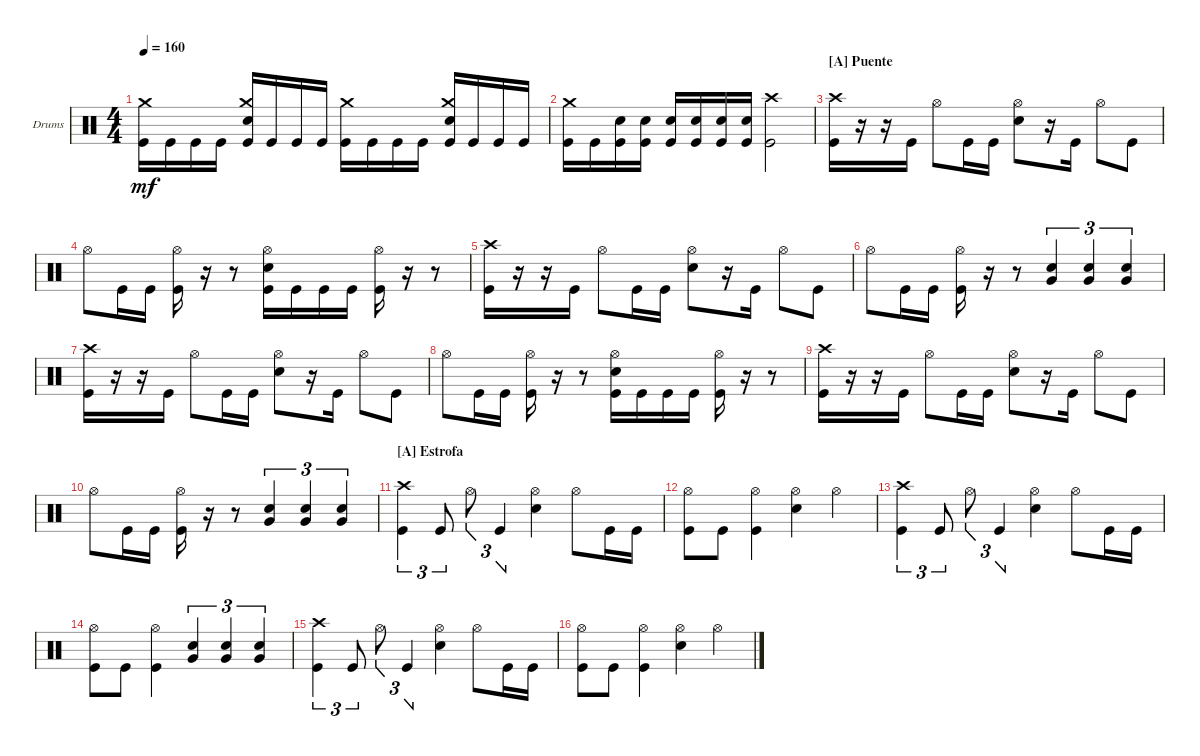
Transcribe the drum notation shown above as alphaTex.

\bracketExtendMode groupsimilarinstruments
\firstSystemTrackNameOrientation horizontal
\otherSystemsTrackNameOrientation horizontal
\track ("Nick Augusto" "Drums") {instrument percussion}
\staff {score}
\articulation defaults
\ts (4 4)
\tempo 160
\clef neutral
\ks c
("Kick (hit)" "Crash medium (hit)").16{dy mf} "Kick (hit)".16 "Kick (hit)".16 "Kick (hit)".16 ("Kick (hit)" "Snare (hit) 2" "Crash medium (hit)").16 "Kick (hit)".16 "Kick (hit)".16 "Kick (hit)".16 ("Kick (hit)" "Crash medium (hit)").16 "Kick (hit)".16 "Kick (hit)".16 "Kick (hit)".16 ("Kick (hit)" "Snare (hit) 2" "Crash medium (hit)").16 "Kick (hit)".16 "Kick (hit)".16 "Kick (hit)".16 |
("Kick (hit)" "Crash medium (hit)").16 "Kick (hit)".16 ("Kick (hit)" "Snare (hit) 2").16 ("Kick (hit)" "Snare (hit) 2").16 ("Kick (hit)" "Snare (hit) 2").16 ("Kick (hit)" "Snare (hit) 2").16 ("Kick (hit)" "Snare (hit) 2").16 ("Kick (hit)" "Snare (hit) 2").16 ("Kick (hit)" "Crash high (hit)").2 |
\section ("A" "Puente")
("Kick (hit)" "Crash high (hit)").16 r.16 r.16 "Kick (hit)".16 "Hi-Hat (open)".8 "Kick (hit)".16 "Kick (hit)".16 ("Snare (hit) 2" "Hi-Hat (open)").8 r.16 "Kick (hit)".16 "Hi-Hat (open)".8 "Kick (hit)".8 |
"Hi-Hat (open)".8 "Kick (hit)".16 "Kick (hit)".16 ("Kick (hit)" "Hi-Hat (open)").16 r.16 r.8 ("Kick (hit)" "Snare (hit) 2" "Hi-Hat (open)").16 "Kick (hit)".16 "Kick (hit)".16 "Kick (hit)".16 ("Kick (hit)" "Hi-Hat (open)").16 r.16 r.8 |
("Kick (hit)" "Crash high (hit)").16 r.16 r.16 "Kick (hit)".16 "Hi-Hat (open)".8 "Kick (hit)".16 "Kick (hit)".16 ("Snare (hit) 2" "Hi-Hat (open)").8 r.16 "Kick (hit)".16 "Hi-Hat (open)".8 "Kick (hit)".8 |
"Hi-Hat (open)".8 "Kick (hit)".16 "Kick (hit)".16 ("Kick (hit)" "Hi-Hat (open)").16 r.16 r.8 ("Snare (hit) 2" "Very Low Tom (hit)").4{tu (3 2)} ("Snare (hit) 2" "Very Low Tom (hit)").4{tu (3 2)} ("Snare (hit) 2" "Very Low Tom (hit)").4{tu (3 2)} |
("Kick (hit)" "Crash high (hit)").16 r.16 r.16 "Kick (hit)".16 "Hi-Hat (open)".8 "Kick (hit)".16 "Kick (hit)".16 ("Snare (hit) 2" "Hi-Hat (open)").8 r.16 "Kick (hit)".16 "Hi-Hat (open)".8 "Kick (hit)".8 |
"Hi-Hat (open)".8 "Kick (hit)".16 "Kick (hit)".16 ("Kick (hit)" "Hi-Hat (open)").16 r.16 r.8 ("Kick (hit)" "Snare (hit) 2" "Hi-Hat (open)").16 "Kick (hit)".16 "Kick (hit)".16 "Kick (hit)".16 ("Kick (hit)" "Hi-Hat (open)").16 r.16 r.8 |
("Kick (hit)" "Crash high (hit)").16 r.16 r.16 "Kick (hit)".16 "Hi-Hat (open)".8 "Kick (hit)".16 "Kick (hit)".16 ("Snare (hit) 2" "Hi-Hat (open)").8 r.16 "Kick (hit)".16 "Hi-Hat (open)".8 "Kick (hit)".8 |
"Hi-Hat (open)".8 "Kick (hit)".16 "Kick (hit)".16 ("Kick (hit)" "Hi-Hat (open)").16 r.16 r.8 ("Snare (hit) 2" "Very Low Tom (hit)").4{tu (3 2)} ("Snare (hit) 2" "Very Low Tom (hit)").4{tu (3 2)} ("Snare (hit) 2" "Very Low Tom (hit)").4{tu (3 2)} |
\section ("A" "Estrofa")
("Kick (hit)" "Crash high (hit)").4{tu (3 2)} "Kick (hit)".8{tu (3 2)} "Hi-Hat (open)".8{tu (3 2)} "Kick (hit)".4{tu (3 2)} ("Snare (hit) 2" "Hi-Hat (open)").4 "Hi-Hat (open)".8 "Kick (hit)".16 "Kick (hit)".16 |
("Hi-Hat (open)" "Kick (hit)").8 "Kick (hit)".8 ("Kick (hit)" "Hi-Hat (open)").4 ("Hi-Hat (open)" "Snare (hit) 2").4 "Hi-Hat (open)".4 |
("Kick (hit)" "Crash high (hit)").4{tu (3 2)} "Kick (hit)".8{tu (3 2)} "Hi-Hat (open)".8{tu (3 2)} "Kick (hit)".4{tu (3 2)} ("Snare (hit) 2" "Hi-Hat (open)").4 "Hi-Hat (open)".8 "Kick (hit)".16 "Kick (hit)".16 |
("Hi-Hat (open)" "Kick (hit)").8 "Kick (hit)".8 ("Kick (hit)" "Hi-Hat (open)").4 ("Snare (hit) 2" "Very Low Tom (hit)").4{tu (3 2)} ("Snare (hit) 2" "Very Low Tom (hit)").4{tu (3 2)} ("Snare (hit) 2" "Very Low Tom (hit)").4{tu (3 2)} |
("Kick (hit)" "Crash high (hit)").4{tu (3 2)} "Kick (hit)".8{tu (3 2)} "Hi-Hat (open)".8{tu (3 2)} "Kick (hit)".4{tu (3 2)} ("Snare (hit) 2" "Hi-Hat (open)").4 "Hi-Hat (open)".8 "Kick (hit)".16 "Kick (hit)".16 |
("Hi-Hat (open)" "Kick (hit)").8 "Kick (hit)".8 ("Kick (hit)" "Hi-Hat (open)").4 ("Hi-Hat (open)" "Snare (hit) 2").4 "Hi-Hat (open)".4
